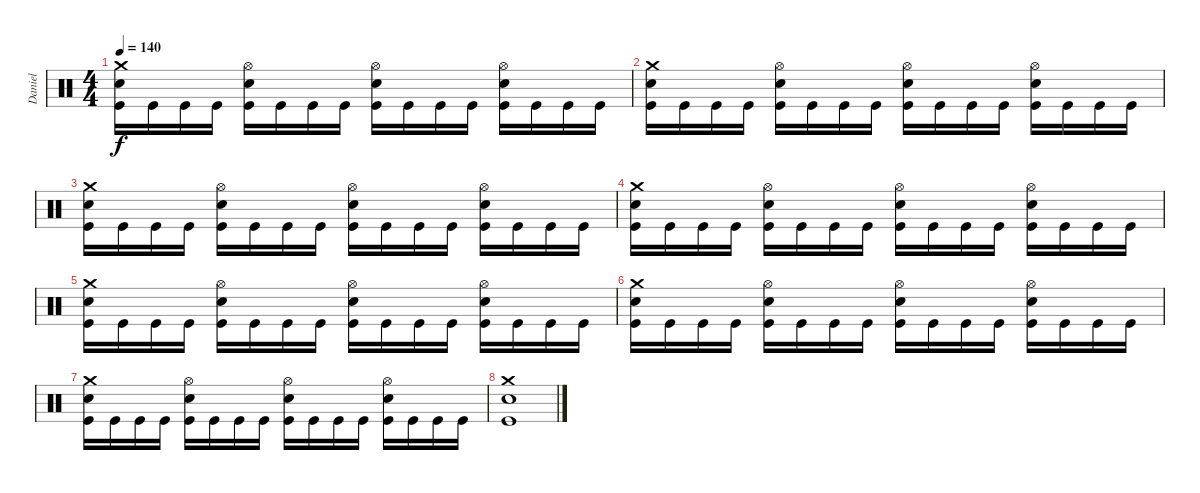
\track ("Daniel" "Daniel") {instrument percussion}
\staff {score}
\articulation defaults
\ts (4 4)
\tempo 140
\clef neutral
\ks c
("Crash medium (hit)" "Electric Snare (hit)" "Kick (hit)").16{dy f} "Kick (hit)".16 "Kick (hit)".16 "Kick (hit)".16 ("Hi-Hat (open)" "Electric Snare (hit)" "Kick (hit)").16 "Kick (hit)".16 "Kick (hit)".16 "Kick (hit)".16 ("Hi-Hat (open)" "Electric Snare (hit)" "Kick (hit)").16 "Kick (hit)".16 "Kick (hit)".16 "Kick (hit)".16 ("Hi-Hat (open)" "Electric Snare (hit)" "Kick (hit)").16 "Kick (hit)".16 "Kick (hit)".16 "Kick (hit)".16 |
("Crash medium (hit)" "Electric Snare (hit)" "Kick (hit)").16 "Kick (hit)".16 "Kick (hit)".16 "Kick (hit)".16 ("Hi-Hat (open)" "Electric Snare (hit)" "Kick (hit)").16 "Kick (hit)".16 "Kick (hit)".16 "Kick (hit)".16 ("Hi-Hat (open)" "Electric Snare (hit)" "Kick (hit)").16 "Kick (hit)".16 "Kick (hit)".16 "Kick (hit)".16 ("Hi-Hat (open)" "Electric Snare (hit)" "Kick (hit)").16 "Kick (hit)".16 "Kick (hit)".16 "Kick (hit)".16 |
("Crash medium (hit)" "Electric Snare (hit)" "Kick (hit)").16 "Kick (hit)".16 "Kick (hit)".16 "Kick (hit)".16 ("Hi-Hat (open)" "Electric Snare (hit)" "Kick (hit)").16 "Kick (hit)".16 "Kick (hit)".16 "Kick (hit)".16 ("Hi-Hat (open)" "Electric Snare (hit)" "Kick (hit)").16 "Kick (hit)".16 "Kick (hit)".16 "Kick (hit)".16 ("Hi-Hat (open)" "Electric Snare (hit)" "Kick (hit)").16 "Kick (hit)".16 "Kick (hit)".16 "Kick (hit)".16 |
("Crash medium (hit)" "Electric Snare (hit)" "Kick (hit)").16 "Kick (hit)".16 "Kick (hit)".16 "Kick (hit)".16 ("Hi-Hat (open)" "Electric Snare (hit)" "Kick (hit)").16 "Kick (hit)".16 "Kick (hit)".16 "Kick (hit)".16 ("Hi-Hat (open)" "Electric Snare (hit)" "Kick (hit)").16 "Kick (hit)".16 "Kick (hit)".16 "Kick (hit)".16 ("Hi-Hat (open)" "Electric Snare (hit)" "Kick (hit)").16 "Kick (hit)".16 "Kick (hit)".16 "Kick (hit)".16 |
("Crash medium (hit)" "Electric Snare (hit)" "Kick (hit)").16 "Kick (hit)".16 "Kick (hit)".16 "Kick (hit)".16 ("Hi-Hat (open)" "Electric Snare (hit)" "Kick (hit)").16 "Kick (hit)".16 "Kick (hit)".16 "Kick (hit)".16 ("Hi-Hat (open)" "Electric Snare (hit)" "Kick (hit)").16 "Kick (hit)".16 "Kick (hit)".16 "Kick (hit)".16 ("Hi-Hat (open)" "Electric Snare (hit)" "Kick (hit)").16 "Kick (hit)".16 "Kick (hit)".16 "Kick (hit)".16 |
("Crash medium (hit)" "Electric Snare (hit)" "Kick (hit)").16 "Kick (hit)".16 "Kick (hit)".16 "Kick (hit)".16 ("Hi-Hat (open)" "Electric Snare (hit)" "Kick (hit)").16 "Kick (hit)".16 "Kick (hit)".16 "Kick (hit)".16 ("Hi-Hat (open)" "Electric Snare (hit)" "Kick (hit)").16 "Kick (hit)".16 "Kick (hit)".16 "Kick (hit)".16 ("Hi-Hat (open)" "Electric Snare (hit)" "Kick (hit)").16 "Kick (hit)".16 "Kick (hit)".16 "Kick (hit)".16 |
("Crash medium (hit)" "Electric Snare (hit)" "Kick (hit)").16 "Kick (hit)".16 "Kick (hit)".16 "Kick (hit)".16 ("Hi-Hat (open)" "Electric Snare (hit)" "Kick (hit)").16 "Kick (hit)".16 "Kick (hit)".16 "Kick (hit)".16 ("Hi-Hat (open)" "Electric Snare (hit)" "Kick (hit)").16 "Kick (hit)".16 "Kick (hit)".16 "Kick (hit)".16 ("Hi-Hat (open)" "Electric Snare (hit)" "Kick (hit)").16 "Kick (hit)".16 "Kick (hit)".16 "Kick (hit)".16 |
("Crash medium (hit)" "Electric Snare (hit)" "Kick (hit)").1
